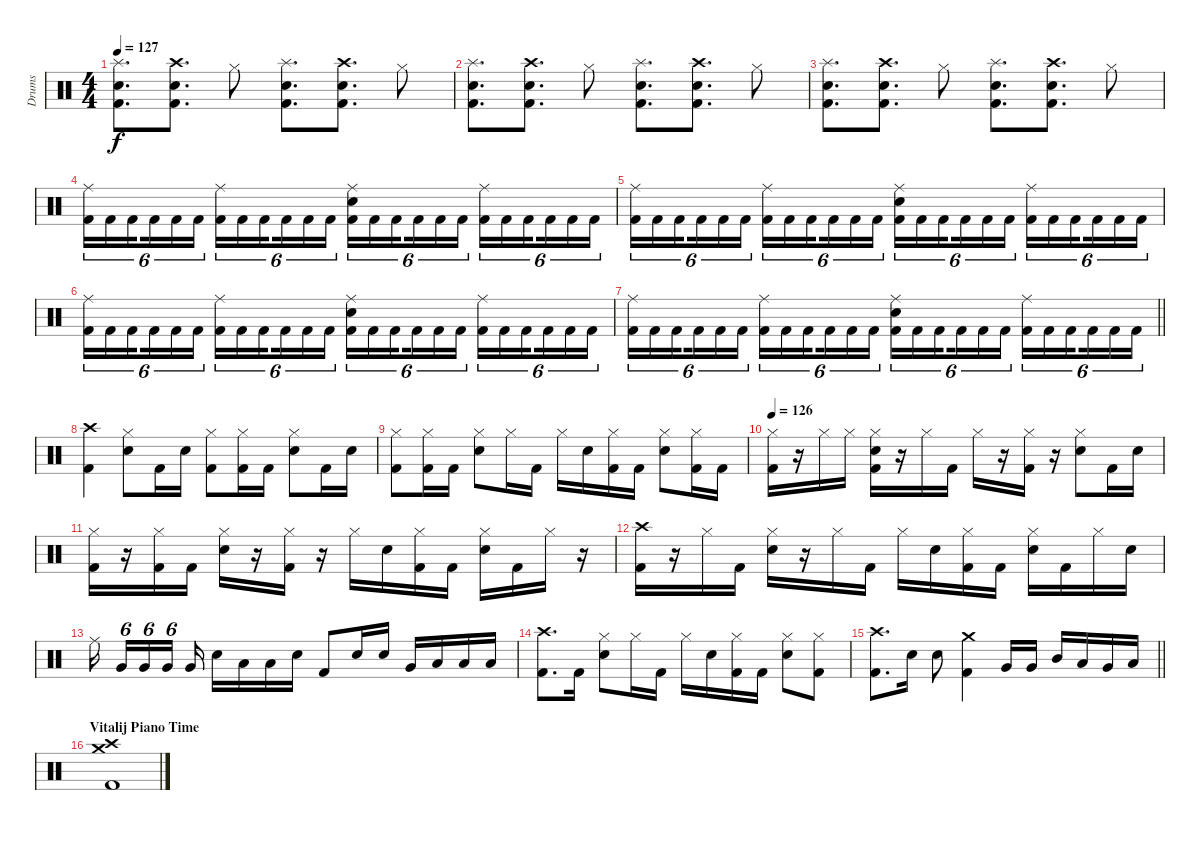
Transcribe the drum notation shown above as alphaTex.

\track ("Drums" "Drums") {instrument percussion}
\staff {score}
\articulation defaults
\ts (4 4)
\tempo 127
\clef neutral
\ks c
("Splash (hit)" "Snare (hit) 2" "Kick (hit) 2").8{d dy f} ("Crash high (hit)" "Snare (hit) 2" "Kick (hit) 2").8{d} "Hi-Hat (closed)".8 ("Splash (hit)" "Snare (hit) 2" "Kick (hit) 2").8{d} ("Crash high (hit)" "Snare (hit) 2" "Kick (hit) 2").8{d} "Hi-Hat (closed)".8 |
("Splash (hit)" "Snare (hit) 2" "Kick (hit) 2").8{d} ("Crash high (hit)" "Snare (hit) 2" "Kick (hit) 2").8{d} "Hi-Hat (closed)".8 ("Splash (hit)" "Snare (hit) 2" "Kick (hit) 2").8{d} ("Crash high (hit)" "Snare (hit) 2" "Kick (hit) 2").8{d} "Hi-Hat (closed)".8 |
("Splash (hit)" "Snare (hit) 2" "Kick (hit) 2").8{d} ("Crash high (hit)" "Snare (hit) 2" "Kick (hit) 2").8{d} "Hi-Hat (closed)".8 ("Splash (hit)" "Snare (hit) 2" "Kick (hit) 2").8{d} ("Crash high (hit)" "Snare (hit) 2" "Kick (hit) 2").8{d} "Hi-Hat (closed)".8 |
("Ride (middle)" "Kick (hit) 2").16{tu (6 4)} "Kick (hit) 2".16{tu (6 4)} "Kick (hit) 2".16{tu (6 4) beam splitsecondary} "Kick (hit) 2".16{tu (6 4)} "Kick (hit) 2".16{tu (6 4)} "Kick (hit) 2".16{tu (6 4)} ("Ride (middle)" "Kick (hit) 2").16{tu (6 4)} "Kick (hit) 2".16{tu (6 4)} "Kick (hit) 2".16{tu (6 4) beam splitsecondary} "Kick (hit) 2".16{tu (6 4)} "Kick (hit) 2".16{tu (6 4)} "Kick (hit) 2".16{tu (6 4)} ("Ride (middle)" "Snare (hit) 2" "Kick (hit) 2").16{tu (6 4)} "Kick (hit) 2".16{tu (6 4)} "Kick (hit) 2".16{tu (6 4) beam splitsecondary} "Kick (hit) 2".16{tu (6 4)} "Kick (hit) 2".16{tu (6 4)} "Kick (hit) 2".16{tu (6 4)} ("Ride (middle)" "Kick (hit) 2").16{tu (6 4)} "Kick (hit) 2".16{tu (6 4)} "Kick (hit) 2".16{tu (6 4) beam splitsecondary} "Kick (hit) 2".16{tu (6 4)} "Kick (hit) 2".16{tu (6 4)} "Kick (hit) 2".16{tu (6 4)} |
("Ride (middle)" "Kick (hit) 2").16{tu (6 4)} "Kick (hit) 2".16{tu (6 4)} "Kick (hit) 2".16{tu (6 4) beam splitsecondary} "Kick (hit) 2".16{tu (6 4)} "Kick (hit) 2".16{tu (6 4)} "Kick (hit) 2".16{tu (6 4)} ("Ride (middle)" "Kick (hit) 2").16{tu (6 4)} "Kick (hit) 2".16{tu (6 4)} "Kick (hit) 2".16{tu (6 4) beam splitsecondary} "Kick (hit) 2".16{tu (6 4)} "Kick (hit) 2".16{tu (6 4)} "Kick (hit) 2".16{tu (6 4)} ("Ride (middle)" "Snare (hit) 2" "Kick (hit) 2").16{tu (6 4)} "Kick (hit) 2".16{tu (6 4)} "Kick (hit) 2".16{tu (6 4) beam splitsecondary} "Kick (hit) 2".16{tu (6 4)} "Kick (hit) 2".16{tu (6 4)} "Kick (hit) 2".16{tu (6 4)} ("Ride (middle)" "Kick (hit) 2").16{tu (6 4)} "Kick (hit) 2".16{tu (6 4)} "Kick (hit) 2".16{tu (6 4) beam splitsecondary} "Kick (hit) 2".16{tu (6 4)} "Kick (hit) 2".16{tu (6 4)} "Kick (hit) 2".16{tu (6 4)} |
("Ride (middle)" "Kick (hit) 2").16{tu (6 4)} "Kick (hit) 2".16{tu (6 4)} "Kick (hit) 2".16{tu (6 4) beam splitsecondary} "Kick (hit) 2".16{tu (6 4)} "Kick (hit) 2".16{tu (6 4)} "Kick (hit) 2".16{tu (6 4)} ("Ride (middle)" "Kick (hit) 2").16{tu (6 4)} "Kick (hit) 2".16{tu (6 4)} "Kick (hit) 2".16{tu (6 4) beam splitsecondary} "Kick (hit) 2".16{tu (6 4)} "Kick (hit) 2".16{tu (6 4)} "Kick (hit) 2".16{tu (6 4)} ("Ride (middle)" "Snare (hit) 2" "Kick (hit) 2").16{tu (6 4)} "Kick (hit) 2".16{tu (6 4)} "Kick (hit) 2".16{tu (6 4) beam splitsecondary} "Kick (hit) 2".16{tu (6 4)} "Kick (hit) 2".16{tu (6 4)} "Kick (hit) 2".16{tu (6 4)} ("Ride (middle)" "Kick (hit) 2").16{tu (6 4)} "Kick (hit) 2".16{tu (6 4)} "Kick (hit) 2".16{tu (6 4) beam splitsecondary} "Kick (hit) 2".16{tu (6 4)} "Kick (hit) 2".16{tu (6 4)} "Kick (hit) 2".16{tu (6 4)} |
\barLineRight lightlight
("Ride (middle)" "Kick (hit) 2").16{tu (6 4)} "Kick (hit) 2".16{tu (6 4)} "Kick (hit) 2".16{tu (6 4) beam splitsecondary} "Kick (hit) 2".16{tu (6 4)} "Kick (hit) 2".16{tu (6 4)} "Kick (hit) 2".16{tu (6 4)} ("Ride (middle)" "Kick (hit) 2").16{tu (6 4)} "Kick (hit) 2".16{tu (6 4)} "Kick (hit) 2".16{tu (6 4) beam splitsecondary} "Kick (hit) 2".16{tu (6 4)} "Kick (hit) 2".16{tu (6 4)} "Kick (hit) 2".16{tu (6 4)} ("Ride (middle)" "Snare (hit) 2" "Kick (hit) 2").16{tu (6 4)} "Kick (hit) 2".16{tu (6 4)} "Kick (hit) 2".16{tu (6 4) beam splitsecondary} "Kick (hit) 2".16{tu (6 4)} "Kick (hit) 2".16{tu (6 4)} "Kick (hit) 2".16{tu (6 4)} ("Ride (middle)" "Kick (hit) 2").16{tu (6 4)} "Kick (hit) 2".16{tu (6 4)} "Kick (hit) 2".16{tu (6 4) beam splitsecondary} "Kick (hit) 2".16{tu (6 4)} "Kick (hit) 2".16{tu (6 4)} "Kick (hit) 2".16{tu (6 4)} |
\section ("" "")
("Crash high (hit)" "Kick (hit) 2").4 ("Hi-Hat (closed)" "Snare (hit) 2").8 "Kick (hit) 2".16 "Snare (hit) 2".16 ("Hi-Hat (closed)" "Kick (hit) 2").8 ("Hi-Hat (closed)" "Kick (hit) 2").16 "Kick (hit) 2".16 ("Hi-Hat (closed)" "Snare (hit) 2").8 "Kick (hit) 2".16 "Snare (hit) 2".16 |
("Hi-Hat (closed)" "Kick (hit) 2").8 ("Hi-Hat (closed)" "Kick (hit) 2").16 "Kick (hit) 2".16 ("Hi-Hat (closed)" "Snare (hit) 2").8 "Hi-Hat (closed)".16 "Kick (hit) 2".16 "Hi-Hat (closed)".16 "Snare (hit) 2".16 ("Hi-Hat (closed)" "Kick (hit) 2").16 "Kick (hit) 2".16 ("Hi-Hat (closed)" "Snare (hit) 2").8 ("Hi-Hat (closed)" "Kick (hit) 2").16 "Kick (hit) 2".16 |
\tempo 126
("Hi-Hat (closed)" "Kick (hit) 2").16 r.16 "Hi-Hat (closed)".16 "Hi-Hat (closed)".16 ("Hi-Hat (closed)" "Snare (hit) 2" "Kick (hit) 2").16 r.16 "Hi-Hat (closed)".16 "Kick (hit) 2".16 "Hi-Hat (closed)".16 r.16 ("Hi-Hat (closed)" "Kick (hit) 2").16 r.16 ("Hi-Hat (closed)" "Snare (hit) 2").8 "Kick (hit) 2".16 "Snare (hit) 2".16 |
("Hi-Hat (closed)" "Kick (hit) 2").16 r.16 ("Hi-Hat (closed)" "Kick (hit) 2").16 "Kick (hit) 2".16 ("Hi-Hat (closed)" "Snare (hit) 2").16 r.16 ("Hi-Hat (closed)" "Kick (hit) 2").16 r.16 "Hi-Hat (closed)".16 "Snare (hit) 2".16 ("Hi-Hat (closed)" "Kick (hit) 2").16 "Kick (hit) 2".16 ("Hi-Hat (closed)" "Snare (hit) 2").16 "Kick (hit) 2".16 "Hi-Hat (closed)".16 r.16 |
("Crash high (hit)" "Kick (hit) 2").16 r.16 "Hi-Hat (closed)".16 "Kick (hit) 2".16 ("Hi-Hat (closed)" "Snare (hit) 2").16 r.16 "Hi-Hat (closed)".16 "Kick (hit) 2".16 "Hi-Hat (closed)".16 "Snare (hit) 2".16 ("Hi-Hat (closed)" "Kick (hit) 2").16 "Kick (hit) 2".16 ("Hi-Hat (closed)" "Snare (hit) 2").16 "Kick (hit) 2".16 "Hi-Hat (closed)".16 "Snare (hit) 2".16 |
"Ride (middle)".16{beam splitsecondary} "Very Low Tom (hit)".16{tu (6 4)} "Very Low Tom (hit)".16{tu (6 4)} "Very Low Tom (hit)".16{tu (6 4) beam splitsecondary} "Very Low Tom (hit)".16 "Snare (hit) 2".16 "Low Floor Tom (hit)".16 "Low Floor Tom (hit)".16 "Snare (hit) 2".16 "Kick (hit) 2".8 "Snare (hit) 2".16 "Snare (hit) 2".16 "Very Low Tom (hit)".16 "Low Floor Tom (hit)".16 "Low Floor Tom (hit)".16 "Low Floor Tom (hit)".16 |
("Crash high (hit)" "Kick (hit) 2").8{d} "Kick (hit) 2".16 ("Hi-Hat (closed)" "Snare (hit) 2").8 "Hi-Hat (closed)".16 "Kick (hit) 2".16 "Hi-Hat (closed)".16 "Snare (hit) 2".16 ("Hi-Hat (closed)" "Kick (hit) 2").16 "Kick (hit) 2".16 ("Hi-Hat (closed)" "Snare (hit) 2").8 ("Hi-Hat (closed)" "Kick (hit) 2").8 |
\barLineRight lightlight
("Crash high (hit)" "Kick (hit) 2").8{d} "Snare (hit) 2".16 "Snare (hit) 2".8 ("Crash medium (hit)" "Kick (hit) 2").4 "Very Low Tom (hit)".16 "Very Low Tom (hit)".16 "Mid Tom (hit)".16 "Low Tom (hit)".16 "Very Low Tom (hit)".16 "Low Floor Tom (hit)".16 |
\section ("" "Vitalij Piano Time")
("Crash high (hit)" "Crash medium (hit)" "Kick (hit) 2").1
